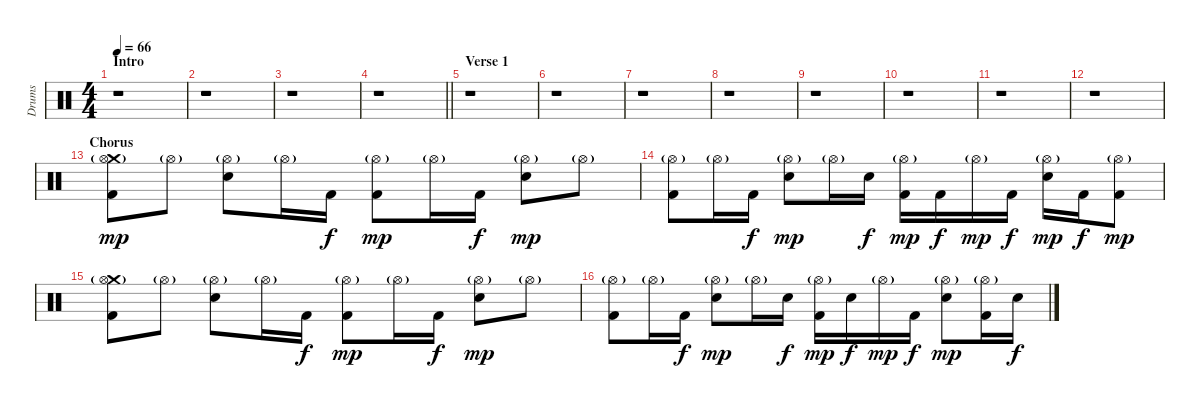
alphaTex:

\track ("Drums" "Drums") {instrument percussion}
\staff {score}
\articulation defaults
\ts (4 4)
\section ("" "Intro")
\tempo 66
\clef neutral
\ks c
r.1{dy mp} |
r.1 |
r.1 |
\barLineRight lightlight
r.1 |
\section ("" "Verse 1")
r.1 |
r.1 |
r.1 |
r.1 |
r.1 |
r.1 |
r.1 |
r.1 |
\section ("" "Chorus")
("Crash medium (hit)" "Hi-Hat (open)"{g} "Kick (hit) 2").8 "Hi-Hat (open)"{g}.8 ("Electric Snare (hit)" "Hi-Hat (open)"{g}).8 "Hi-Hat (open)"{g}.16 "Kick (hit) 2".16{dy f} ("Hi-Hat (open)"{g} "Kick (hit) 2").8{dy mp} "Hi-Hat (open)"{g}.16 "Kick (hit) 2".16{dy f} ("Electric Snare (hit)" "Hi-Hat (open)"{g}).8{dy mp} "Hi-Hat (open)"{g}.8 |
("Hi-Hat (open)"{g} "Kick (hit) 2").8 "Hi-Hat (open)"{g}.16 "Kick (hit) 2".16{dy f} ("Electric Snare (hit)" "Hi-Hat (open)"{g}).8{dy mp} "Hi-Hat (open)"{g}.16 "Electric Snare (hit)".16{dy f} ("Hi-Hat (open)"{g} "Kick (hit) 2").16{dy mp} "Kick (hit) 2".16{dy f} "Hi-Hat (open)"{g}.16{dy mp} "Kick (hit) 2".16{dy f} ("Electric Snare (hit)" "Hi-Hat (open)"{g}).16{dy mp} "Kick (hit) 2".16{dy f} ("Hi-Hat (open)"{g} "Kick (hit) 2").8{dy mp} |
("Crash medium (hit)" "Hi-Hat (open)"{g} "Kick (hit) 2").8 "Hi-Hat (open)"{g}.8 ("Electric Snare (hit)" "Hi-Hat (open)"{g}).8 "Hi-Hat (open)"{g}.16 "Kick (hit) 2".16{dy f} ("Hi-Hat (open)"{g} "Kick (hit) 2").8{dy mp} "Hi-Hat (open)"{g}.16 "Kick (hit) 2".16{dy f} ("Electric Snare (hit)" "Hi-Hat (open)"{g}).8{dy mp} "Hi-Hat (open)"{g}.8 |
("Hi-Hat (open)"{g} "Kick (hit) 2").8 "Hi-Hat (open)"{g}.16 "Kick (hit) 2".16{dy f} ("Electric Snare (hit)" "Hi-Hat (open)"{g}).8{dy mp} "Hi-Hat (open)"{g}.16 "Electric Snare (hit)".16{dy f} ("Hi-Hat (open)"{g} "Kick (hit) 2").16{dy mp} "Electric Snare (hit)".16{dy f} "Hi-Hat (open)"{g}.16{dy mp} "Kick (hit) 2".16{dy f} ("Electric Snare (hit)" "Hi-Hat (open)"{g}).8{dy mp} ("Hi-Hat (open)"{g} "Kick (hit) 2").16 "Electric Snare (hit)".16{dy f}
